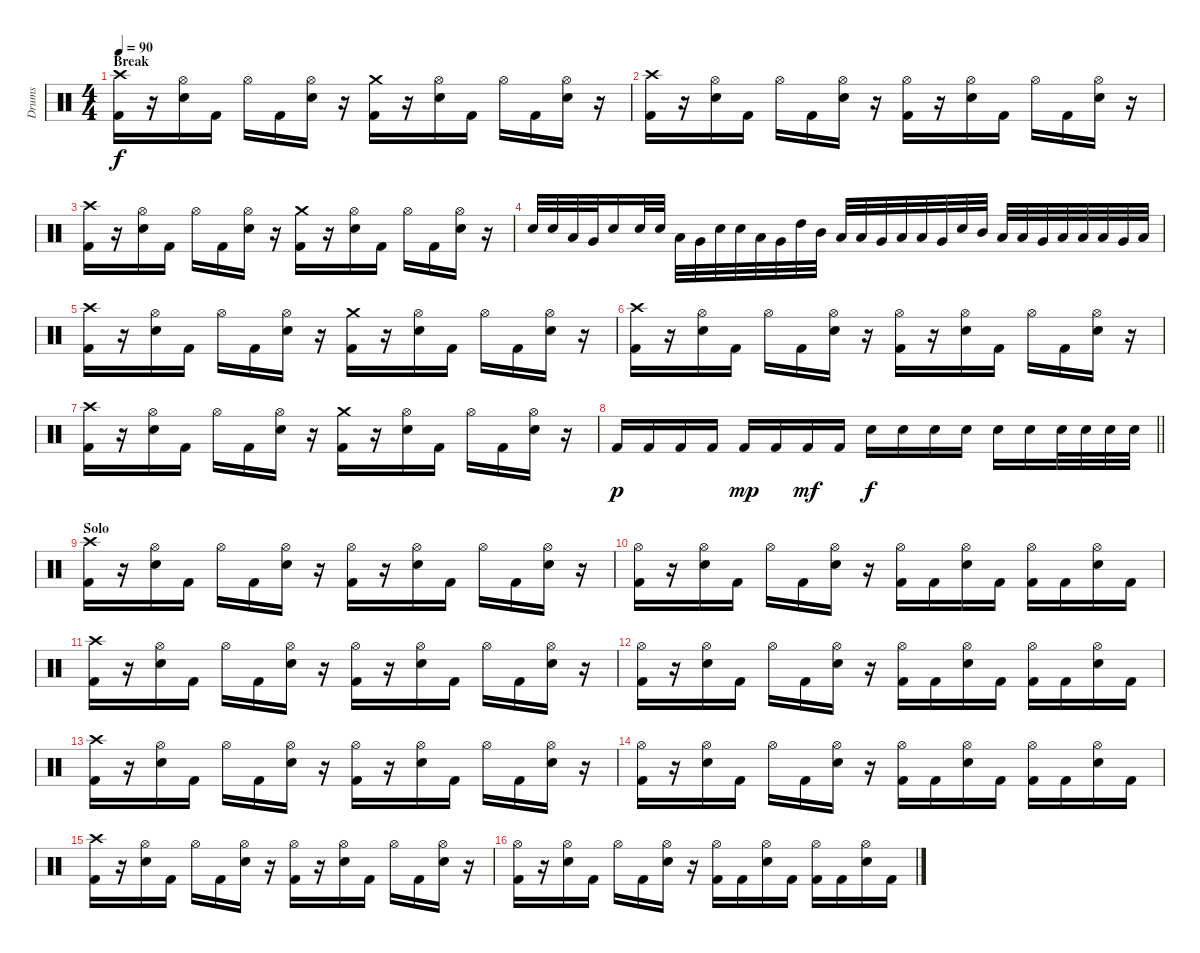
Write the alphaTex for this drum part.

\track ("Drums" "Drums") {instrument percussion}
\staff {score}
\articulation defaults
\ts (4 4)
\section ("" "Break")
\tempo 90
\clef neutral
\ks c
("Crash high (hit)" "Kick (hit) 2").16{dy f} r.16 ("Hi-Hat (open)" "Snare (hit) 2").16 "Kick (hit) 2".16 "Hi-Hat (open)".16 "Kick (hit) 2".16 ("Hi-Hat (open)" "Snare (hit) 2").16 r.16 ("Crash medium (hit)" "Kick (hit) 2").16 r.16 ("Hi-Hat (open)" "Snare (hit) 2").16 "Kick (hit) 2".16 "Hi-Hat (open)".16 "Kick (hit) 2".16 ("Hi-Hat (open)" "Snare (hit) 2").16 r.16 |
("Crash high (hit)" "Kick (hit) 2").16 r.16 ("Hi-Hat (open)" "Snare (hit) 2").16 "Kick (hit) 2".16 "Hi-Hat (open)".16 "Kick (hit) 2".16 ("Hi-Hat (open)" "Snare (hit) 2").16 r.16 ("Hi-Hat (open)" "Kick (hit) 2").16 r.16 ("Hi-Hat (open)" "Snare (hit) 2").16 "Kick (hit) 2".16 "Hi-Hat (open)".16 "Kick (hit) 2".16 ("Hi-Hat (open)" "Snare (hit) 2").16 r.16 |
("Crash high (hit)" "Kick (hit) 2").16 r.16 ("Hi-Hat (open)" "Snare (hit) 2").16 "Kick (hit) 2".16 "Hi-Hat (open)".16 "Kick (hit) 2".16 ("Hi-Hat (open)" "Snare (hit) 2").16 r.16 ("Crash medium (hit)" "Kick (hit) 2").16 r.16 ("Hi-Hat (open)" "Snare (hit) 2").16 "Kick (hit) 2".16 "Hi-Hat (open)".16 "Kick (hit) 2".16 ("Hi-Hat (open)" "Snare (hit) 2").16 r.16 |
"Snare (hit) 2".32 "Snare (hit) 2".32 "Low Tom (hit)".32 "Very Low Tom (hit)".32 "Snare (hit) 2".16 "Snare (hit) 2".32 "Snare (hit) 2".32 "Low Tom (hit)".32 "Very Low Tom (hit)".32 "Snare (hit) 2".32 "Snare (hit) 2".32 "Low Tom (hit)".32 "Very Low Tom (hit)".32 "High Tom (hit)".32 "Mid Tom (hit)".32 "Low Tom (hit)".32 "Low Tom (hit)".32 "Very Low Tom (hit)".32 "Low Floor Tom (hit)".32 "Low Tom (hit)".32 "Very Low Tom (hit)".32 "Snare (hit) 2".32 "Mid Tom (hit)".32 "Low Tom (hit)".32 "Low Tom (hit)".32 "Very Low Tom (hit)".32 "Low Floor Tom (hit)".32 "Low Tom (hit)".32 "Low Tom (hit)".32 "Very Low Tom (hit)".32 "Low Floor Tom (hit)".32 |
("Crash high (hit)" "Kick (hit) 2").16 r.16 ("Hi-Hat (open)" "Snare (hit) 2").16 "Kick (hit) 2".16 "Hi-Hat (open)".16 "Kick (hit) 2".16 ("Hi-Hat (open)" "Snare (hit) 2").16 r.16 ("Crash medium (hit)" "Kick (hit) 2").16 r.16 ("Hi-Hat (open)" "Snare (hit) 2").16 "Kick (hit) 2".16 "Hi-Hat (open)".16 "Kick (hit) 2".16 ("Hi-Hat (open)" "Snare (hit) 2").16 r.16 |
("Crash high (hit)" "Kick (hit) 2").16 r.16 ("Hi-Hat (open)" "Snare (hit) 2").16 "Kick (hit) 2".16 "Hi-Hat (open)".16 "Kick (hit) 2".16 ("Hi-Hat (open)" "Snare (hit) 2").16 r.16 ("Hi-Hat (open)" "Kick (hit) 2").16 r.16 ("Hi-Hat (open)" "Snare (hit) 2").16 "Kick (hit) 2".16 "Hi-Hat (open)".16 "Kick (hit) 2".16 ("Hi-Hat (open)" "Snare (hit) 2").16 r.16 |
("Crash high (hit)" "Kick (hit) 2").16 r.16 ("Hi-Hat (open)" "Snare (hit) 2").16 "Kick (hit) 2".16 "Hi-Hat (open)".16 "Kick (hit) 2".16 ("Hi-Hat (open)" "Snare (hit) 2").16 r.16 ("Crash medium (hit)" "Kick (hit) 2").16 r.16 ("Hi-Hat (open)" "Snare (hit) 2").16 "Kick (hit) 2".16 "Hi-Hat (open)".16 "Kick (hit) 2".16 ("Hi-Hat (open)" "Snare (hit) 2").16 r.16 |
\barLineRight lightlight "Kick (hit) 2".16{dy p} "Kick (hit) 2".16 "Kick (hit) 2".16 "Kick (hit) 2".16 "Kick (hit) 2".16{dy mp} "Kick (hit) 2".16 "Kick (hit) 2".16{dy mf} "Kick (hit) 2".16 "Snare (hit) 2".16{dy f} "Snare (hit) 2".16 "Snare (hit) 2".16 "Snare (hit) 2".16 "Snare (hit) 2".16 "Snare (hit) 2".16 "Snare (hit) 2".32 "Snare (hit) 2".32 "Snare (hit) 2".32 "Snare (hit) 2".32
|
\section ("" "Solo")
("Crash high (hit)" "Kick (hit) 2").16 r.16 ("Hi-Hat (open)" "Snare (hit) 2").16 "Kick (hit) 2".16 "Hi-Hat (open)".16 "Kick (hit) 2".16 ("Hi-Hat (open)" "Snare (hit) 2").16 r.16 ("Hi-Hat (open)" "Kick (hit) 2").16 r.16 ("Hi-Hat (open)" "Snare (hit) 2").16 "Kick (hit) 2".16 "Hi-Hat (open)".16 "Kick (hit) 2".16 ("Hi-Hat (open)" "Snare (hit) 2").16 r.16 |
("Hi-Hat (open)" "Kick (hit) 2").16 r.16 ("Hi-Hat (open)" "Snare (hit) 2").16 "Kick (hit) 2".16 "Hi-Hat (open)".16 "Kick (hit) 2".16 ("Hi-Hat (open)" "Snare (hit) 2").16 r.16 ("Hi-Hat (open)" "Kick (hit) 2").16 "Kick (hit) 2".16 ("Hi-Hat (open)" "Snare (hit) 2").16 "Kick (hit) 2".16 ("Hi-Hat (open)" "Kick (hit) 2").16 "Kick (hit) 2".16 ("Hi-Hat (open)" "Snare (hit) 2").16 "Kick (hit) 2".16 |
("Crash high (hit)" "Kick (hit) 2").16 r.16 ("Hi-Hat (open)" "Snare (hit) 2").16 "Kick (hit) 2".16 "Hi-Hat (open)".16 "Kick (hit) 2".16 ("Hi-Hat (open)" "Snare (hit) 2").16 r.16 ("Hi-Hat (open)" "Kick (hit) 2").16 r.16 ("Hi-Hat (open)" "Snare (hit) 2").16 "Kick (hit) 2".16 "Hi-Hat (open)".16 "Kick (hit) 2".16 ("Hi-Hat (open)" "Snare (hit) 2").16 r.16 |
("Hi-Hat (open)" "Kick (hit) 2").16 r.16 ("Hi-Hat (open)" "Snare (hit) 2").16 "Kick (hit) 2".16 "Hi-Hat (open)".16 "Kick (hit) 2".16 ("Hi-Hat (open)" "Snare (hit) 2").16 r.16 ("Hi-Hat (open)" "Kick (hit) 2").16 "Kick (hit) 2".16 ("Hi-Hat (open)" "Snare (hit) 2").16 "Kick (hit) 2".16 ("Hi-Hat (open)" "Kick (hit) 2").16 "Kick (hit) 2".16 ("Hi-Hat (open)" "Snare (hit) 2").16 "Kick (hit) 2".16 |
("Crash high (hit)" "Kick (hit) 2").16 r.16 ("Hi-Hat (open)" "Snare (hit) 2").16 "Kick (hit) 2".16 "Hi-Hat (open)".16 "Kick (hit) 2".16 ("Hi-Hat (open)" "Snare (hit) 2").16 r.16 ("Hi-Hat (open)" "Kick (hit) 2").16 r.16 ("Hi-Hat (open)" "Snare (hit) 2").16 "Kick (hit) 2".16 "Hi-Hat (open)".16 "Kick (hit) 2".16 ("Hi-Hat (open)" "Snare (hit) 2").16 r.16 |
("Hi-Hat (open)" "Kick (hit) 2").16 r.16 ("Hi-Hat (open)" "Snare (hit) 2").16 "Kick (hit) 2".16 "Hi-Hat (open)".16 "Kick (hit) 2".16 ("Hi-Hat (open)" "Snare (hit) 2").16 r.16 ("Hi-Hat (open)" "Kick (hit) 2").16 "Kick (hit) 2".16 ("Hi-Hat (open)" "Snare (hit) 2").16 "Kick (hit) 2".16 ("Hi-Hat (open)" "Kick (hit) 2").16 "Kick (hit) 2".16 ("Hi-Hat (open)" "Snare (hit) 2").16 "Kick (hit) 2".16 |
("Crash high (hit)" "Kick (hit) 2").16 r.16 ("Hi-Hat (open)" "Snare (hit) 2").16 "Kick (hit) 2".16 "Hi-Hat (open)".16 "Kick (hit) 2".16 ("Hi-Hat (open)" "Snare (hit) 2").16 r.16 ("Hi-Hat (open)" "Kick (hit) 2").16 r.16 ("Hi-Hat (open)" "Snare (hit) 2").16 "Kick (hit) 2".16 "Hi-Hat (open)".16 "Kick (hit) 2".16 ("Hi-Hat (open)" "Snare (hit) 2").16 r.16 |
("Hi-Hat (open)" "Kick (hit) 2").16 r.16 ("Hi-Hat (open)" "Snare (hit) 2").16 "Kick (hit) 2".16 "Hi-Hat (open)".16 "Kick (hit) 2".16 ("Hi-Hat (open)" "Snare (hit) 2").16 r.16 ("Hi-Hat (open)" "Kick (hit) 2").16 "Kick (hit) 2".16 ("Hi-Hat (open)" "Snare (hit) 2").16 "Kick (hit) 2".16 ("Hi-Hat (open)" "Kick (hit) 2").16 "Kick (hit) 2".16 ("Hi-Hat (open)" "Snare (hit) 2").16 "Kick (hit) 2".16
